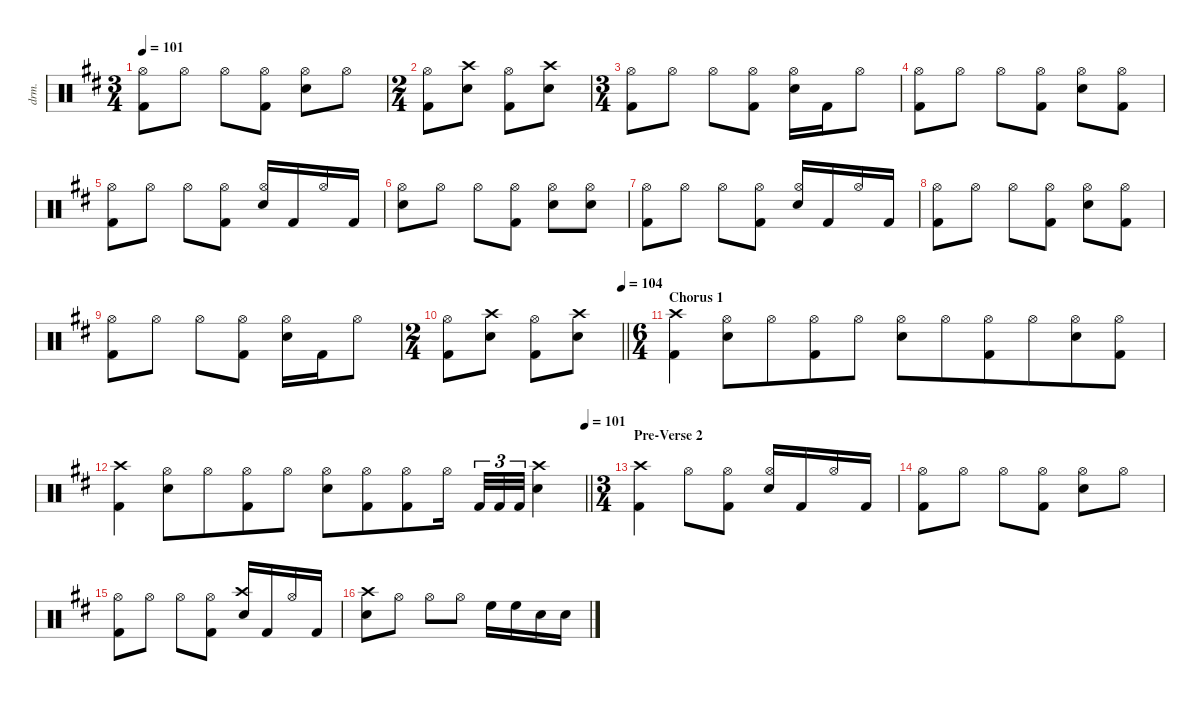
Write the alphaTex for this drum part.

\defaultSystemsLayout 4
\hideDynamics
\bracketExtendMode nobrackets
\otherSystemsTrackNameOrientation horizontal
\track ("Lars Ulrich" "drm.") {defaultSystemsLayout 4 instrument percussion}
\staff {score}
\articulation defaults
\ts (3 4)
\tempo 101
\clef neutral
\ks bminor
("Hi-Hat (open)"{acc forcenatural} "Kick (hit) 2"{acc forcenatural}).8{dy mf beam Down} "Hi-Hat (open)"{acc forcenatural}.8{beam Down} "Hi-Hat (open)"{acc forcenatural}.8{beam Down} ("Hi-Hat (open)"{acc forcenatural} "Kick (hit) 2"{acc forcenatural}).8{beam Down} ("Hi-Hat (open)"{acc forcenatural} "Snare (hit) 2"{acc forcenatural}).8{beam Down} "Hi-Hat (open)"{acc forcenatural}.8{beam Down} |
\ts (2 4)
\beaming (8 2 2)
("Hi-Hat (open)"{acc forcenatural} "Kick (hit) 2"{acc forcenatural}).8{beam Down} ("Crash high (hit)"{acc forcenatural} "Snare (hit) 2"{acc forcenatural}).8{dy f beam Down} ("Hi-Hat (open)"{acc forcenatural} "Kick (hit) 2"{acc forcenatural}).8{dy mf beam Down} ("Crash high (hit)"{acc forcenatural} "Snare (hit) 2"{acc forcenatural}).8{dy f beam Down} |
\ts (3 4)
\beaming (8 2 2 2)
("Hi-Hat (open)"{acc forcenatural} "Kick (hit) 2"{acc forcenatural}).8{dy mf beam Down} "Hi-Hat (open)"{acc forcenatural}.8{beam Down} "Hi-Hat (open)"{acc forcenatural}.8{beam Down} ("Hi-Hat (open)"{acc forcenatural} "Kick (hit) 2"{acc forcenatural}).8{beam Down} ("Hi-Hat (open)"{acc forcenatural} "Snare (hit) 2"{acc forcenatural}).16{beam Down} "Kick (hit) 2"{acc forcenatural}.16{dy fff beam Down} "Hi-Hat (open)"{acc forcenatural}.8{dy mf beam Down} |
("Hi-Hat (open)"{acc forcenatural} "Kick (hit) 2"{acc forcenatural}).8{beam Down} "Hi-Hat (open)"{acc forcenatural}.8{beam Down} "Hi-Hat (open)"{acc forcenatural}.8{beam Down} ("Hi-Hat (open)"{acc forcenatural} "Kick (hit) 2"{acc forcenatural}).8{beam Down} ("Hi-Hat (open)"{acc forcenatural} "Snare (hit) 2"{acc forcenatural}).8{beam Down} ("Hi-Hat (open)"{acc forcenatural} "Kick (hit) 2"{acc forcenatural}).8{beam Down} |
("Hi-Hat (open)"{acc forcenatural} "Kick (hit) 2"{acc forcenatural}).8{beam Down} "Hi-Hat (open)"{acc forcenatural}.8{beam Down} "Hi-Hat (open)"{acc forcenatural}.8{beam Down} ("Hi-Hat (open)"{acc forcenatural} "Kick (hit) 2"{acc forcenatural}).8{beam Down} ("Hi-Hat (open)"{acc forcenatural} "Snare (hit) 2"{acc forcenatural}).16{beam Up} "Kick (hit) 2"{acc forcenatural}.16{dy fff beam Up} "Hi-Hat (open)"{acc forcenatural}.16{dy mf beam Up} "Kick (hit) 2"{acc forcenatural}.16{dy fff beam Up} |
("Hi-Hat (open)"{acc forcenatural} "Snare (hit) 2"{acc forcenatural}).8{dy mf beam Down} "Hi-Hat (open)"{acc forcenatural}.8{beam Down} "Hi-Hat (open)"{acc forcenatural}.8{beam Down} ("Hi-Hat (open)"{acc forcenatural} "Kick (hit) 2"{acc forcenatural}).8{beam Down} ("Hi-Hat (open)"{acc forcenatural} "Snare (hit) 2"{acc forcenatural}).8{beam Down} ("Hi-Hat (open)"{acc forcenatural} "Snare (hit) 2"{acc forcenatural}).8{beam Down} |
("Hi-Hat (open)"{acc forcenatural} "Kick (hit) 2"{acc forcenatural}).8{beam Down} "Hi-Hat (open)"{acc forcenatural}.8{beam Down} "Hi-Hat (open)"{acc forcenatural}.8{beam Down} ("Hi-Hat (open)"{acc forcenatural} "Kick (hit) 2"{acc forcenatural}).8{beam Down} ("Hi-Hat (open)"{acc forcenatural} "Snare (hit) 2"{acc forcenatural}).16{beam Up} "Kick (hit) 2"{acc forcenatural}.16{dy fff beam Up} "Hi-Hat (open)"{acc forcenatural}.16{dy mf beam Up} "Kick (hit) 2"{acc forcenatural}.16{dy fff beam Up} |
("Hi-Hat (open)"{acc forcenatural} "Kick (hit) 2"{acc forcenatural}).8{dy mf beam Down} "Hi-Hat (open)"{acc forcenatural}.8{beam Down} "Hi-Hat (open)"{acc forcenatural}.8{beam Down} ("Hi-Hat (open)"{acc forcenatural} "Kick (hit) 2"{acc forcenatural}).8{beam Down} ("Hi-Hat (open)"{acc forcenatural} "Snare (hit) 2"{acc forcenatural}).8{beam Down} ("Hi-Hat (open)"{acc forcenatural} "Kick (hit) 2"{acc forcenatural}).8{beam Down} |
("Hi-Hat (open)"{acc forcenatural} "Kick (hit) 2"{acc forcenatural}).8{beam Down} "Hi-Hat (open)"{acc forcenatural}.8{beam Down} "Hi-Hat (open)"{acc forcenatural}.8{beam Down} ("Hi-Hat (open)"{acc forcenatural} "Kick (hit) 2"{acc forcenatural}).8{beam Down} ("Hi-Hat (open)"{acc forcenatural} "Snare (hit) 2"{acc forcenatural}).16{beam Down} "Kick (hit) 2"{acc forcenatural}.16{dy fff beam Down} "Hi-Hat (open)"{acc forcenatural}.8{dy mf beam Down} |
\ts (2 4)
\beaming (8 2 2)
\tempo (104 1)
\barLineRight lightlight
("Hi-Hat (open)"{acc forcenatural} "Kick (hit) 2"{acc forcenatural}).8{beam Down} ("Crash high (hit)"{acc forcenatural} "Snare (hit) 2"{acc forcenatural}).8{dy f beam Down} ("Hi-Hat (open)"{acc forcenatural} "Kick (hit) 2"{acc forcenatural}).8{dy mf beam Down} ("Crash high (hit)"{acc forcenatural} "Snare (hit) 2"{acc forcenatural}).8{dy f beam Down} |
\ts (6 4)
\beaming (8 6 6)
\section ("" "Chorus 1")
("Crash high (hit)"{acc forcenatural} "Kick (hit) 2"{acc forcenatural}).4{beam Down} ("Hi-Hat (open)"{acc forcenatural} "Snare (hit) 2"{acc forcenatural}).8{beam Down} "Hi-Hat (open)"{acc forcenatural}.8{beam Down} ("Hi-Hat (open)"{acc forcenatural} "Kick (hit) 2"{acc forcenatural}).8{beam Down} "Hi-Hat (open)"{acc forcenatural}.8{beam Down} ("Hi-Hat (open)"{acc forcenatural} "Snare (hit) 2"{acc forcenatural}).8{beam Down} "Hi-Hat (open)"{acc forcenatural}.8{beam Down} ("Hi-Hat (open)"{acc forcenatural} "Kick (hit) 2"{acc forcenatural}).8{beam Down} "Hi-Hat (open)"{acc forcenatural}.8{beam Down} ("Hi-Hat (open)"{acc forcenatural} "Snare (hit) 2"{acc forcenatural}).8{beam Down} ("Hi-Hat (open)"{acc forcenatural} "Kick (hit) 2"{acc forcenatural}).8{beam Down} |
\tempo (101 1)
\barLineRight lightlight
("Crash high (hit)"{acc forcenatural} "Kick (hit) 2"{acc forcenatural}).4{beam Down} ("Hi-Hat (open)"{acc forcenatural} "Snare (hit) 2"{acc forcenatural}).8{beam Down} "Hi-Hat (open)"{acc forcenatural}.8{beam Down} ("Hi-Hat (open)"{acc forcenatural} "Kick (hit) 2"{acc forcenatural}).8{beam Down} "Hi-Hat (open)"{acc forcenatural}.8{beam Down} ("Hi-Hat (open)"{acc forcenatural} "Snare (hit) 2"{acc forcenatural}).8{beam Down} ("Hi-Hat (open)"{acc forcenatural} "Kick (hit) 2"{acc forcenatural}).8{beam Down} ("Hi-Hat (open)"{acc forcenatural} "Kick (hit) 2"{acc forcenatural}).8{beam Down} "Hi-Hat (open)"{acc forcenatural}.16{beam Down} "Kick (hit) 2"{acc forcenatural}.32{tu (3 2) dy fff beam Up} "Kick (hit) 2"{acc forcenatural}.32{tu (3 2) beam Up} "Kick (hit) 2"{acc forcenatural}.32{tu (3 2) beam Up} ("Crash high (hit)"{acc forcenatural} "Snare (hit) 2"{acc forcenatural}).4{dy f beam Down} |
\ts (3 4)
\beaming (8 2 2 2)
\section ("" "Pre-Verse 2")
("Crash high (hit)"{acc forcenatural} "Kick (hit) 2"{acc forcenatural}).4{beam Down} "Hi-Hat (open)"{acc forcenatural}.8{dy mf beam Down} ("Hi-Hat (open)"{acc forcenatural} "Kick (hit) 2"{acc forcenatural}).8{beam Down} ("Hi-Hat (open)"{acc forcenatural} "Snare (hit) 2"{acc forcenatural}).16{beam Up} "Kick (hit) 2"{acc forcenatural}.16{dy fff beam Up} "Hi-Hat (open)"{acc forcenatural}.16{dy mf beam Up} "Kick (hit) 2"{acc forcenatural}.16{dy fff beam Up} |
("Hi-Hat (open)"{acc forcenatural} "Kick (hit) 2"{acc forcenatural}).8{dy mf beam Down} "Hi-Hat (open)"{acc forcenatural}.8{beam Down} "Hi-Hat (open)"{acc forcenatural}.8{beam Down} ("Hi-Hat (open)"{acc forcenatural} "Kick (hit) 2"{acc forcenatural}).8{beam Down} ("Hi-Hat (open)"{acc forcenatural} "Snare (hit) 2"{acc forcenatural}).8{beam Down} "Hi-Hat (open)"{acc forcenatural}.8{beam Down} |
("Hi-Hat (open)"{acc forcenatural} "Kick (hit) 2"{acc forcenatural}).8{beam Down} "Hi-Hat (open)"{acc forcenatural}.8{beam Down} "Hi-Hat (open)"{acc forcenatural}.8{beam Down} ("Hi-Hat (open)"{acc forcenatural} "Kick (hit) 2"{acc forcenatural}).8{beam Down} ("Crash high (hit)"{acc forcenatural} "Snare (hit) 2"{acc forcenatural}).16{dy f beam Up} "Kick (hit) 2"{acc forcenatural}.16{dy fff beam Up} "Hi-Hat (open)"{acc forcenatural}.16{dy mf beam Up} "Kick (hit) 2"{acc forcenatural}.16{dy fff beam Up} |
("Crash high (hit)"{acc forcenatural} "Snare (hit) 2"{acc forcenatural}).8{dy f beam Down} "Hi-Hat (open)"{acc forcenatural}.8{dy mf beam Down} "Hi-Hat (open)"{acc forcenatural}.8{beam Down} "Hi-Hat (open)"{acc forcenatural}.8{beam Down} "High Floor Tom (hit)"{acc forcenatural}.16{dy fff beam Down} "High Floor Tom (hit)"{acc forcenatural}.16{beam Down} "Snare (hit) 2"{acc forcenatural}.16{beam Down} "Snare (hit) 2"{acc forcenatural}.16{beam Down}
